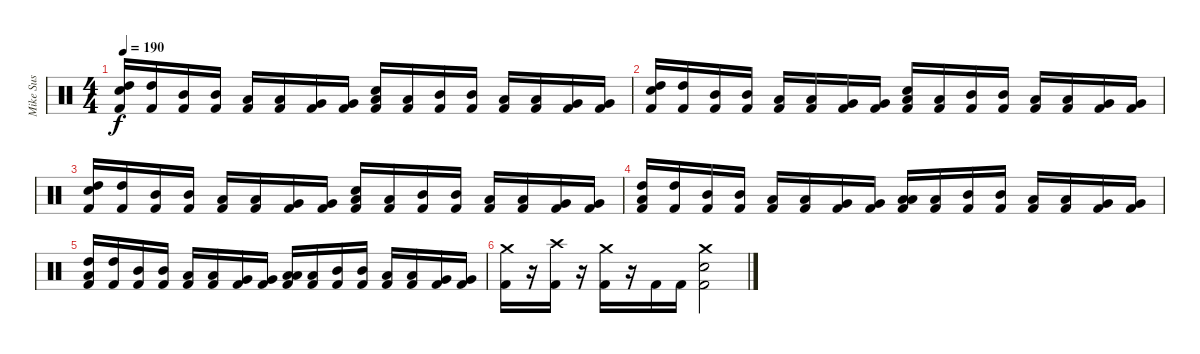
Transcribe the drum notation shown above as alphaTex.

\track ("Mike Sus" "Mike Sus") {instrument percussion}
\staff {score}
\articulation defaults
\ts (4 4)
\tempo 190
\clef neutral
\ks c
("High Tom (hit)" "Electric Snare (hit)" "Kick (hit) 2").16{dy f} ("High Tom (hit)" "Kick (hit) 2").16 ("Mid Tom (hit)" "Kick (hit) 2").16 ("Mid Tom (hit)" "Kick (hit) 2").16 ("Low Tom (hit)" "Kick (hit) 2").16 ("Low Tom (hit)" "Kick (hit) 2").16 ("Very Low Tom (hit)" "Kick (hit) 2").16 ("Very Low Tom (hit)" "Kick (hit) 2").16 ("Low Floor Tom (hit)" "Electric Snare (hit)" "Kick (hit) 2").16 ("Low Floor Tom (hit)" "Kick (hit) 2").16 ("Mid Tom (hit)" "Kick (hit) 2").16 ("Mid Tom (hit)" "Kick (hit) 2").16 ("Low Tom (hit)" "Kick (hit) 2").16 ("Low Tom (hit)" "Kick (hit) 2").16 ("Very Low Tom (hit)" "Kick (hit) 2").16 ("Very Low Tom (hit)" "Kick (hit) 2").16 |
("High Tom (hit)" "Electric Snare (hit)" "Kick (hit) 2").16 ("High Tom (hit)" "Kick (hit) 2").16 ("Mid Tom (hit)" "Kick (hit) 2").16 ("Mid Tom (hit)" "Kick (hit) 2").16 ("Low Tom (hit)" "Kick (hit) 2").16 ("Low Tom (hit)" "Kick (hit) 2").16 ("Very Low Tom (hit)" "Kick (hit) 2").16 ("Very Low Tom (hit)" "Kick (hit) 2").16 ("Low Floor Tom (hit)" "Electric Snare (hit)" "Kick (hit) 2").16 ("Low Floor Tom (hit)" "Kick (hit) 2").16 ("Mid Tom (hit)" "Kick (hit) 2").16 ("Mid Tom (hit)" "Kick (hit) 2").16 ("Low Tom (hit)" "Kick (hit) 2").16 ("Low Tom (hit)" "Kick (hit) 2").16 ("Very Low Tom (hit)" "Kick (hit) 2").16 ("Very Low Tom (hit)" "Kick (hit) 2").16 |
("High Tom (hit)" "Electric Snare (hit)" "Kick (hit) 2").16 ("High Tom (hit)" "Kick (hit) 2").16 ("Mid Tom (hit)" "Kick (hit) 2").16 ("Mid Tom (hit)" "Kick (hit) 2").16 ("Low Tom (hit)" "Kick (hit) 2").16 ("Low Tom (hit)" "Kick (hit) 2").16 ("Very Low Tom (hit)" "Kick (hit) 2").16 ("Very Low Tom (hit)" "Kick (hit) 2").16 ("Low Floor Tom (hit)" "Electric Snare (hit)" "Kick (hit) 2").16 ("Low Floor Tom (hit)" "Kick (hit) 2").16 ("Mid Tom (hit)" "Kick (hit) 2").16 ("Mid Tom (hit)" "Kick (hit) 2").16 ("Low Tom (hit)" "Kick (hit) 2").16 ("Low Tom (hit)" "Kick (hit) 2").16 ("Very Low Tom (hit)" "Kick (hit) 2").16 ("Very Low Tom (hit)" "Kick (hit) 2").16 |
("High Tom (hit)" "Low Floor Tom (hit)" "Kick (hit) 2").16 ("High Tom (hit)" "Kick (hit) 2").16 ("Mid Tom (hit)" "Kick (hit) 2").16 ("Mid Tom (hit)" "Kick (hit) 2").16 ("Low Tom (hit)" "Kick (hit) 2").16 ("Low Tom (hit)" "Kick (hit) 2").16 ("Very Low Tom (hit)" "Kick (hit) 2").16 ("Very Low Tom (hit)" "Kick (hit) 2").16 ("Low Floor Tom (hit)" "Low Floor Tom (hit)" "Kick (hit) 2").16 ("Low Floor Tom (hit)" "Kick (hit) 2").16 ("Mid Tom (hit)" "Kick (hit) 2").16 ("Mid Tom (hit)" "Kick (hit) 2").16 ("Low Tom (hit)" "Kick (hit) 2").16 ("Low Tom (hit)" "Kick (hit) 2").16 ("Very Low Tom (hit)" "Kick (hit) 2").16 ("Very Low Tom (hit)" "Kick (hit) 2").16 |
("High Tom (hit)" "Low Floor Tom (hit)" "Kick (hit) 2").16 ("High Tom (hit)" "Kick (hit) 2").16 ("Mid Tom (hit)" "Kick (hit) 2").16 ("Mid Tom (hit)" "Kick (hit) 2").16 ("Low Tom (hit)" "Kick (hit) 2").16 ("Low Tom (hit)" "Kick (hit) 2").16 ("Very Low Tom (hit)" "Kick (hit) 2").16 ("Very Low Tom (hit)" "Kick (hit) 2").16 ("Low Floor Tom (hit)" "Low Floor Tom (hit)" "Kick (hit) 2").16 ("Low Floor Tom (hit)" "Kick (hit) 2").16 ("Mid Tom (hit)" "Kick (hit) 2").16 ("Mid Tom (hit)" "Kick (hit) 2").16 ("Low Tom (hit)" "Kick (hit) 2").16 ("Low Tom (hit)" "Kick (hit) 2").16 ("Very Low Tom (hit)" "Kick (hit) 2").16 ("Very Low Tom (hit)" "Kick (hit) 2").16 |
("Crash medium (hit)" "Kick (hit) 2").16 r.16 ("Crash high (hit)" "Kick (hit) 2").16 r.16 ("Crash medium (hit)" "Kick (hit) 2").16 r.16 "Kick (hit) 2".16 "Kick (hit) 2".16 ("Crash medium (hit)" "Electric Snare (hit)" "Kick (hit) 2").2
